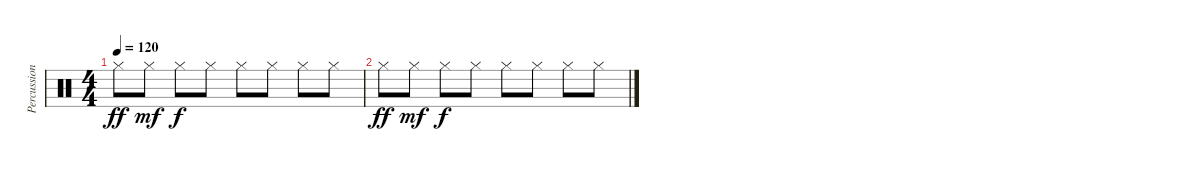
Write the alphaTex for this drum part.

\track ("Percussion" "Percussion") {instrument percussion}
\staff {score}
\articulation defaults
\ts (4 4)
\tempo 120
\clef neutral
\ks c "Hi-Hat (closed)".8{dy ff} "Hi-Hat (closed)".8{dy mf} "Hi-Hat (closed)".8{dy f} "Hi-Hat (closed)".8 "Hi-Hat (closed)".8 "Hi-Hat (closed)".8 "Hi-Hat (closed)".8 "Hi-Hat (closed)".8
|
"Hi-Hat (closed)".8{dy ff} "Hi-Hat (closed)".8{dy mf} "Hi-Hat (closed)".8{dy f} "Hi-Hat (closed)".8 "Hi-Hat (closed)".8 "Hi-Hat (closed)".8 "Hi-Hat (closed)".8 "Hi-Hat (closed)".8
